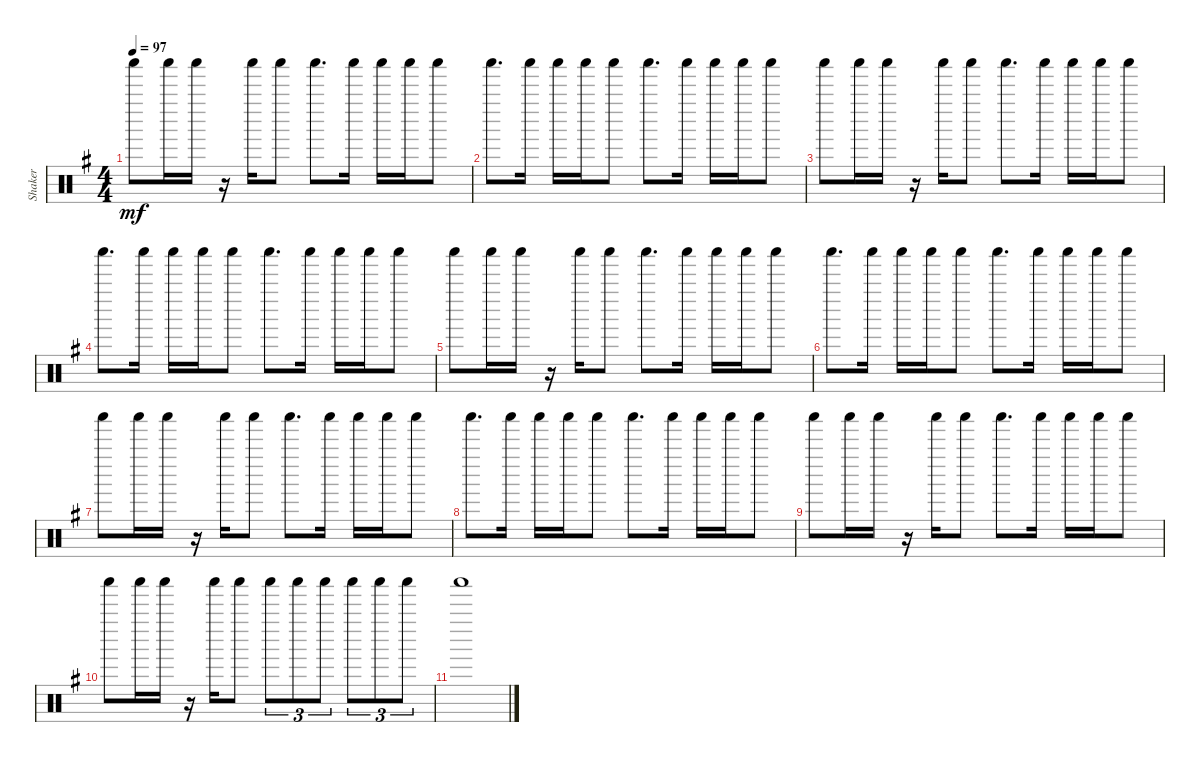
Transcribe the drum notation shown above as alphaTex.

\track ("Shaker" "Shaker") {instrument percussion}
\staff {score}
\articulation defaults
\ts (4 4)
\tempo 97
\clef neutral
\ks g "Shaker (hit)".8{dy mf} "Shaker (hit)".16 "Shaker (hit)".16
r.16 "Shaker (hit)".16 "Shaker (hit)".8 "Shaker (hit)".8{d} "Shaker (hit)".16 "Shaker (hit)".16 "Shaker (hit)".16 "Shaker (hit)".8 |
"Shaker (hit)".8{d} "Shaker (hit)".16 "Shaker (hit)".16 "Shaker (hit)".16 "Shaker (hit)".8 "Shaker (hit)".8{d} "Shaker (hit)".16 "Shaker (hit)".16 "Shaker (hit)".16 "Shaker (hit)".8 |
"Shaker (hit)".8 "Shaker (hit)".16 "Shaker (hit)".16 r.16 "Shaker (hit)".16 "Shaker (hit)".8 "Shaker (hit)".8{d} "Shaker (hit)".16 "Shaker (hit)".16 "Shaker (hit)".16 "Shaker (hit)".8 |
"Shaker (hit)".8{d} "Shaker (hit)".16 "Shaker (hit)".16 "Shaker (hit)".16 "Shaker (hit)".8 "Shaker (hit)".8{d} "Shaker (hit)".16 "Shaker (hit)".16 "Shaker (hit)".16 "Shaker (hit)".8 |
"Shaker (hit)".8 "Shaker (hit)".16 "Shaker (hit)".16 r.16 "Shaker (hit)".16 "Shaker (hit)".8 "Shaker (hit)".8{d} "Shaker (hit)".16 "Shaker (hit)".16 "Shaker (hit)".16 "Shaker (hit)".8 |
"Shaker (hit)".8{d} "Shaker (hit)".16 "Shaker (hit)".16 "Shaker (hit)".16 "Shaker (hit)".8 "Shaker (hit)".8{d} "Shaker (hit)".16 "Shaker (hit)".16 "Shaker (hit)".16 "Shaker (hit)".8 |
"Shaker (hit)".8 "Shaker (hit)".16 "Shaker (hit)".16 r.16 "Shaker (hit)".16 "Shaker (hit)".8 "Shaker (hit)".8{d} "Shaker (hit)".16 "Shaker (hit)".16 "Shaker (hit)".16 "Shaker (hit)".8 |
"Shaker (hit)".8{d} "Shaker (hit)".16 "Shaker (hit)".16 "Shaker (hit)".16 "Shaker (hit)".8 "Shaker (hit)".8{d} "Shaker (hit)".16 "Shaker (hit)".16 "Shaker (hit)".16 "Shaker (hit)".8 |
"Shaker (hit)".8 "Shaker (hit)".16 "Shaker (hit)".16 r.16 "Shaker (hit)".16 "Shaker (hit)".8 "Shaker (hit)".8{d} "Shaker (hit)".16 "Shaker (hit)".16 "Shaker (hit)".16 "Shaker (hit)".8 |
"Shaker (hit)".8 "Shaker (hit)".16 "Shaker (hit)".16 r.16 "Shaker (hit)".16 "Shaker (hit)".8 "Shaker (hit)".8{tu (3 2)} "Shaker (hit)".8{tu (3 2)} "Shaker (hit)".8{tu (3 2)} "Shaker (hit)".8{tu (3 2)} "Shaker (hit)".8{tu (3 2)} "Shaker (hit)".8{tu (3 2)} |
"Shaker (hit)".1
